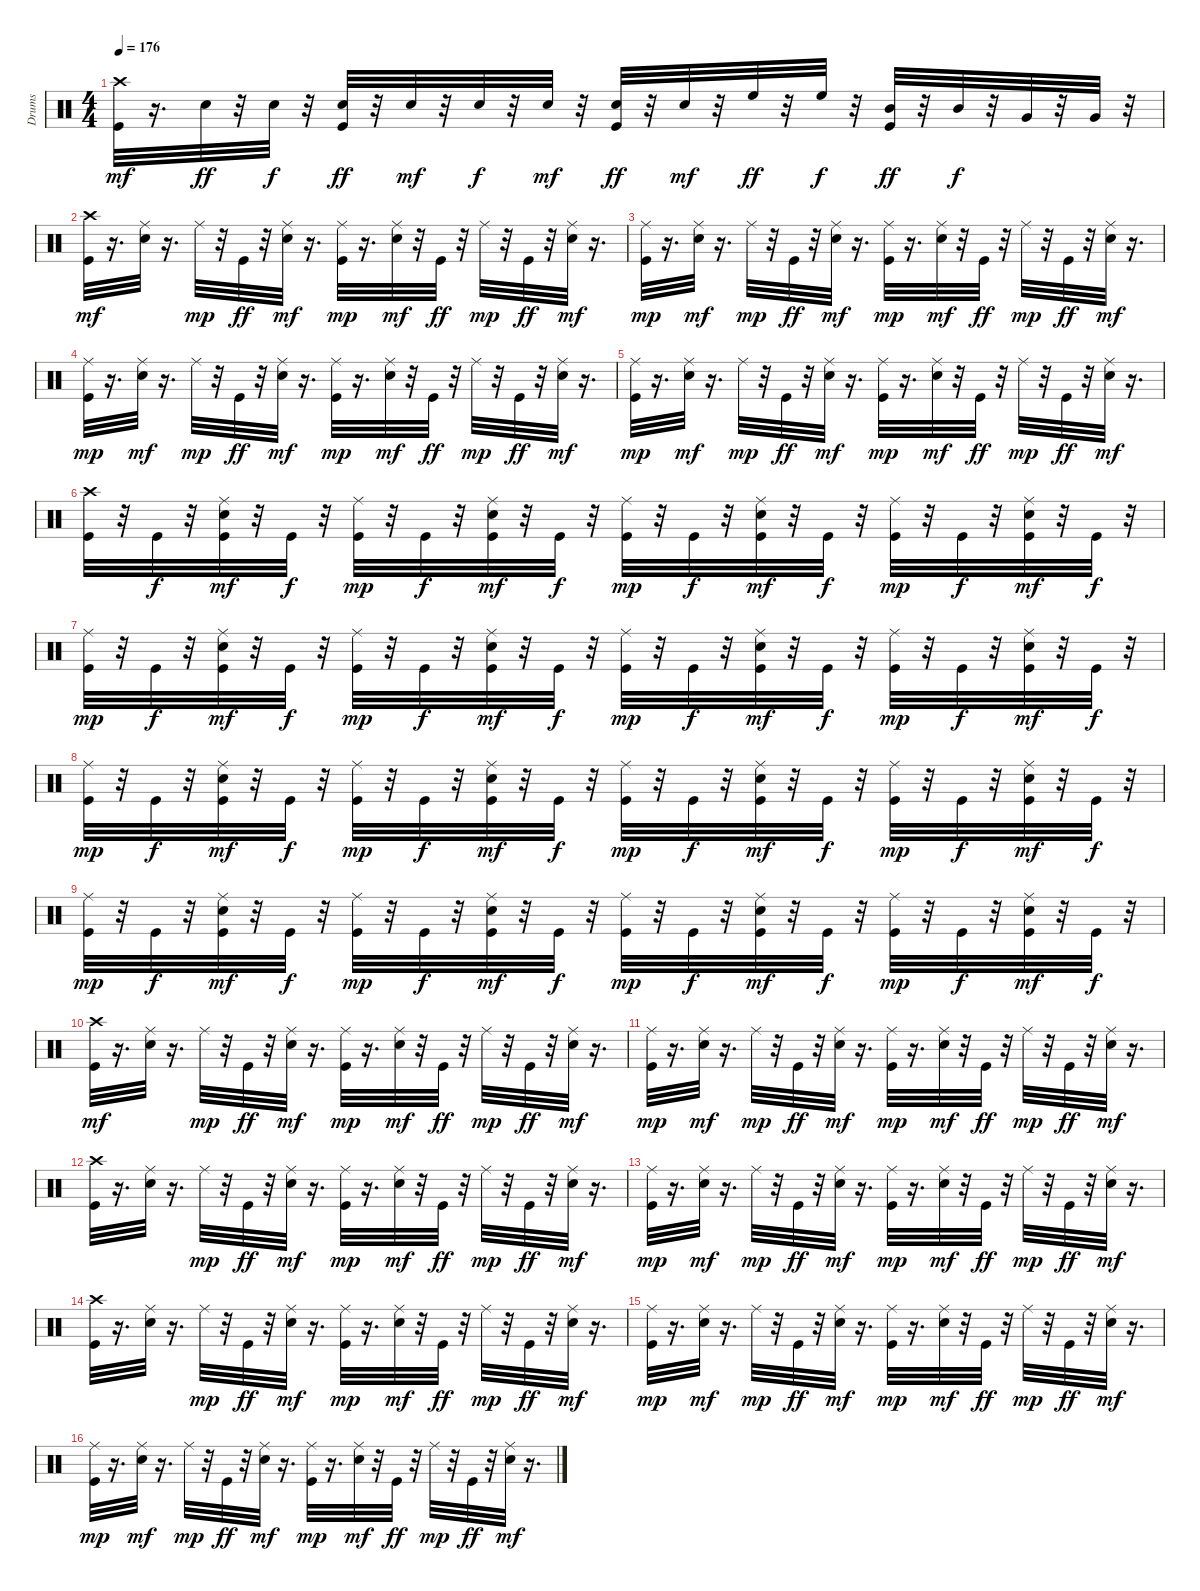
\track ("Drums" "Drums") {instrument percussion}
\staff {score}
\articulation defaults
\ts (4 4)
\tempo 176
\clef neutral
\ks c
("Kick (hit)" "Crash high (hit)").32{dy mf} r.16{d} "Snare (hit) 2".32{dy ff} r.32 "Snare (hit) 2".32{dy f} r.32 ("Kick (hit)" "Snare (hit) 2").32{dy ff} r.32 "Snare (hit) 2".32{dy mf} r.32 "Snare (hit) 2".32{dy f} r.32 "Snare (hit) 2".32{dy mf} r.32 ("Kick (hit)" "Snare (hit) 2").32{dy ff} r.32 "Snare (hit) 2".32{dy mf} r.32 "High Floor Tom (hit)".32{dy ff} r.32 "High Floor Tom (hit)".32{dy f} r.32 ("Kick (hit)" "Mid Tom (hit)").32{dy ff} r.32 "Mid Tom (hit)".32{dy f} r.32 "Very Low Tom (hit)".32 r.32 "Very Low Tom (hit)".32 r.32 |
("Kick (hit)" "Crash high (hit)").32{dy mf} r.16{d} ("Snare (hit) 2" "Ride (middle)").32 r.16{d} "Ride (middle)".32{dy mp} r.32 "Kick (hit)".32{dy ff} r.32 ("Snare (hit) 2" "Ride (middle)").32{dy mf} r.16{d} ("Kick (hit)" "Ride (middle)").32{dy mp} r.16{d} ("Snare (hit) 2" "Ride (middle)").32{dy mf} r.32 "Kick (hit)".32{dy ff} r.32 "Ride (middle)".32{dy mp} r.32 "Kick (hit)".32{dy ff} r.32 ("Snare (hit) 2" "Ride (middle)").32{dy mf} r.16{d} |
("Kick (hit)" "Ride (middle)").32{dy mp} r.16{d} ("Snare (hit) 2" "Ride (middle)").32{dy mf} r.16{d} "Ride (middle)".32{dy mp} r.32 "Kick (hit)".32{dy ff} r.32 ("Snare (hit) 2" "Ride (middle)").32{dy mf} r.16{d} ("Kick (hit)" "Ride (middle)").32{dy mp} r.16{d} ("Snare (hit) 2" "Ride (middle)").32{dy mf} r.32 "Kick (hit)".32{dy ff} r.32 "Ride (middle)".32{dy mp} r.32 "Kick (hit)".32{dy ff} r.32 ("Snare (hit) 2" "Ride (middle)").32{dy mf} r.16{d} |
("Kick (hit)" "Ride (middle)").32{dy mp} r.16{d} ("Snare (hit) 2" "Ride (middle)").32{dy mf} r.16{d} "Ride (middle)".32{dy mp} r.32 "Kick (hit)".32{dy ff} r.32 ("Snare (hit) 2" "Ride (middle)").32{dy mf} r.16{d} ("Kick (hit)" "Ride (middle)").32{dy mp} r.16{d} ("Snare (hit) 2" "Ride (middle)").32{dy mf} r.32 "Kick (hit)".32{dy ff} r.32 "Ride (middle)".32{dy mp} r.32 "Kick (hit)".32{dy ff} r.32 ("Snare (hit) 2" "Ride (middle)").32{dy mf} r.16{d} |
("Kick (hit)" "Ride (middle)").32{dy mp} r.16{d} ("Snare (hit) 2" "Ride (middle)").32{dy mf} r.16{d} "Ride (middle)".32{dy mp} r.32 "Kick (hit)".32{dy ff} r.32 ("Snare (hit) 2" "Ride (middle)").32{dy mf} r.16{d} ("Kick (hit)" "Ride (middle)").32{dy mp} r.16{d} ("Snare (hit) 2" "Ride (middle)").32{dy mf} r.32 "Kick (hit)".32{dy ff} r.32 "Ride (middle)".32{dy mp} r.32 "Kick (hit)".32{dy ff} r.32 ("Snare (hit) 2" "Ride (middle)").32{dy mf} r.16{d} |
("Kick (hit)" "Crash high (hit)").32 r.32 "Kick (hit)".32{dy f} r.32 ("Kick (hit)" "Snare (hit) 2" "Ride (middle)").32{dy mf} r.32 "Kick (hit)".32{dy f} r.32 ("Kick (hit)" "Ride (middle)").32{dy mp} r.32 "Kick (hit)".32{dy f} r.32 ("Kick (hit)" "Snare (hit) 2" "Ride (middle)").32{dy mf} r.32 "Kick (hit)".32{dy f} r.32 ("Kick (hit)" "Ride (middle)").32{dy mp} r.32 "Kick (hit)".32{dy f} r.32 ("Kick (hit)" "Snare (hit) 2" "Ride (middle)").32{dy mf} r.32 "Kick (hit)".32{dy f} r.32 ("Kick (hit)" "Ride (middle)").32{dy mp} r.32 "Kick (hit)".32{dy f} r.32 ("Kick (hit)" "Snare (hit) 2" "Ride (middle)").32{dy mf} r.32 "Kick (hit)".32{dy f} r.32 |
("Kick (hit)" "Ride (middle)").32{dy mp} r.32 "Kick (hit)".32{dy f} r.32 ("Kick (hit)" "Snare (hit) 2" "Ride (middle)").32{dy mf} r.32 "Kick (hit)".32{dy f} r.32 ("Kick (hit)" "Ride (middle)").32{dy mp} r.32 "Kick (hit)".32{dy f} r.32 ("Kick (hit)" "Snare (hit) 2" "Ride (middle)").32{dy mf} r.32 "Kick (hit)".32{dy f} r.32 ("Kick (hit)" "Ride (middle)").32{dy mp} r.32 "Kick (hit)".32{dy f} r.32 ("Kick (hit)" "Snare (hit) 2" "Ride (middle)").32{dy mf} r.32 "Kick (hit)".32{dy f} r.32 ("Kick (hit)" "Ride (middle)").32{dy mp} r.32 "Kick (hit)".32{dy f} r.32 ("Kick (hit)" "Snare (hit) 2" "Ride (middle)").32{dy mf} r.32 "Kick (hit)".32{dy f} r.32 |
("Kick (hit)" "Ride (middle)").32{dy mp} r.32 "Kick (hit)".32{dy f} r.32 ("Kick (hit)" "Snare (hit) 2" "Ride (middle)").32{dy mf} r.32 "Kick (hit)".32{dy f} r.32 ("Kick (hit)" "Ride (middle)").32{dy mp} r.32 "Kick (hit)".32{dy f} r.32 ("Kick (hit)" "Snare (hit) 2" "Ride (middle)").32{dy mf} r.32 "Kick (hit)".32{dy f} r.32 ("Kick (hit)" "Ride (middle)").32{dy mp} r.32 "Kick (hit)".32{dy f} r.32 ("Kick (hit)" "Snare (hit) 2" "Ride (middle)").32{dy mf} r.32 "Kick (hit)".32{dy f} r.32 ("Kick (hit)" "Ride (middle)").32{dy mp} r.32 "Kick (hit)".32{dy f} r.32 ("Kick (hit)" "Snare (hit) 2" "Ride (middle)").32{dy mf} r.32 "Kick (hit)".32{dy f} r.32 |
("Kick (hit)" "Ride (middle)").32{dy mp} r.32 "Kick (hit)".32{dy f} r.32 ("Kick (hit)" "Snare (hit) 2" "Ride (middle)").32{dy mf} r.32 "Kick (hit)".32{dy f} r.32 ("Kick (hit)" "Ride (middle)").32{dy mp} r.32 "Kick (hit)".32{dy f} r.32 ("Kick (hit)" "Snare (hit) 2" "Ride (middle)").32{dy mf} r.32 "Kick (hit)".32{dy f} r.32 ("Kick (hit)" "Ride (middle)").32{dy mp} r.32 "Kick (hit)".32{dy f} r.32 ("Kick (hit)" "Snare (hit) 2" "Ride (middle)").32{dy mf} r.32 "Kick (hit)".32{dy f} r.32 ("Kick (hit)" "Ride (middle)").32{dy mp} r.32 "Kick (hit)".32{dy f} r.32 ("Kick (hit)" "Snare (hit) 2" "Ride (middle)").32{dy mf} r.32 "Kick (hit)".32{dy f} r.32 |
("Kick (hit)" "Crash high (hit)").32{dy mf} r.16{d} ("Snare (hit) 2" "Ride (middle)").32 r.16{d} "Ride (middle)".32{dy mp} r.32 "Kick (hit)".32{dy ff} r.32 ("Snare (hit) 2" "Ride (middle)").32{dy mf} r.16{d} ("Kick (hit)" "Ride (middle)").32{dy mp} r.16{d} ("Snare (hit) 2" "Ride (middle)").32{dy mf} r.32 "Kick (hit)".32{dy ff} r.32 "Ride (middle)".32{dy mp} r.32 "Kick (hit)".32{dy ff} r.32 ("Snare (hit) 2" "Ride (middle)").32{dy mf} r.16{d} |
("Kick (hit)" "Ride (middle)").32{dy mp} r.16{d} ("Snare (hit) 2" "Ride (middle)").32{dy mf} r.16{d} "Ride (middle)".32{dy mp} r.32 "Kick (hit)".32{dy ff} r.32 ("Snare (hit) 2" "Ride (middle)").32{dy mf} r.16{d} ("Kick (hit)" "Ride (middle)").32{dy mp} r.16{d} ("Snare (hit) 2" "Ride (middle)").32{dy mf} r.32 "Kick (hit)".32{dy ff} r.32 "Ride (middle)".32{dy mp} r.32 "Kick (hit)".32{dy ff} r.32 ("Snare (hit) 2" "Ride (middle)").32{dy mf} r.16{d} |
("Kick (hit)" "Crash high (hit)").32 r.16{d} ("Snare (hit) 2" "Ride (middle)").32 r.16{d} "Ride (middle)".32{dy mp} r.32 "Kick (hit)".32{dy ff} r.32 ("Snare (hit) 2" "Ride (middle)").32{dy mf} r.16{d} ("Kick (hit)" "Ride (middle)").32{dy mp} r.16{d} ("Snare (hit) 2" "Ride (middle)").32{dy mf} r.32 "Kick (hit)".32{dy ff} r.32 "Ride (middle)".32{dy mp} r.32 "Kick (hit)".32{dy ff} r.32 ("Snare (hit) 2" "Ride (middle)").32{dy mf} r.16{d} |
("Kick (hit)" "Ride (middle)").32{dy mp} r.16{d} ("Snare (hit) 2" "Ride (middle)").32{dy mf} r.16{d} "Ride (middle)".32{dy mp} r.32 "Kick (hit)".32{dy ff} r.32 ("Snare (hit) 2" "Ride (middle)").32{dy mf} r.16{d} ("Kick (hit)" "Ride (middle)").32{dy mp} r.16{d} ("Snare (hit) 2" "Ride (middle)").32{dy mf} r.32 "Kick (hit)".32{dy ff} r.32 "Ride (middle)".32{dy mp} r.32 "Kick (hit)".32{dy ff} r.32 ("Snare (hit) 2" "Ride (middle)").32{dy mf} r.16{d} |
("Kick (hit)" "Crash high (hit)").32 r.16{d} ("Snare (hit) 2" "Ride (middle)").32 r.16{d} "Ride (middle)".32{dy mp} r.32 "Kick (hit)".32{dy ff} r.32 ("Snare (hit) 2" "Ride (middle)").32{dy mf} r.16{d} ("Kick (hit)" "Ride (middle)").32{dy mp} r.16{d} ("Snare (hit) 2" "Ride (middle)").32{dy mf} r.32 "Kick (hit)".32{dy ff} r.32 "Ride (middle)".32{dy mp} r.32 "Kick (hit)".32{dy ff} r.32 ("Snare (hit) 2" "Ride (middle)").32{dy mf} r.16{d} |
("Kick (hit)" "Ride (middle)").32{dy mp} r.16{d} ("Snare (hit) 2" "Ride (middle)").32{dy mf} r.16{d} "Ride (middle)".32{dy mp} r.32 "Kick (hit)".32{dy ff} r.32 ("Snare (hit) 2" "Ride (middle)").32{dy mf} r.16{d} ("Kick (hit)" "Ride (middle)").32{dy mp} r.16{d} ("Snare (hit) 2" "Ride (middle)").32{dy mf} r.32 "Kick (hit)".32{dy ff} r.32 "Ride (middle)".32{dy mp} r.32 "Kick (hit)".32{dy ff} r.32 ("Snare (hit) 2" "Ride (middle)").32{dy mf} r.16{d} |
("Kick (hit)" "Ride (middle)").32{dy mp} r.16{d} ("Snare (hit) 2" "Ride (middle)").32{dy mf} r.16{d} "Ride (middle)".32{dy mp} r.32 "Kick (hit)".32{dy ff} r.32 ("Snare (hit) 2" "Ride (middle)").32{dy mf} r.16{d} ("Kick (hit)" "Ride (middle)").32{dy mp} r.16{d} ("Snare (hit) 2" "Ride (middle)").32{dy mf} r.32 "Kick (hit)".32{dy ff} r.32 "Ride (middle)".32{dy mp} r.32 "Kick (hit)".32{dy ff} r.32 ("Snare (hit) 2" "Ride (middle)").32{dy mf} r.16{d}
